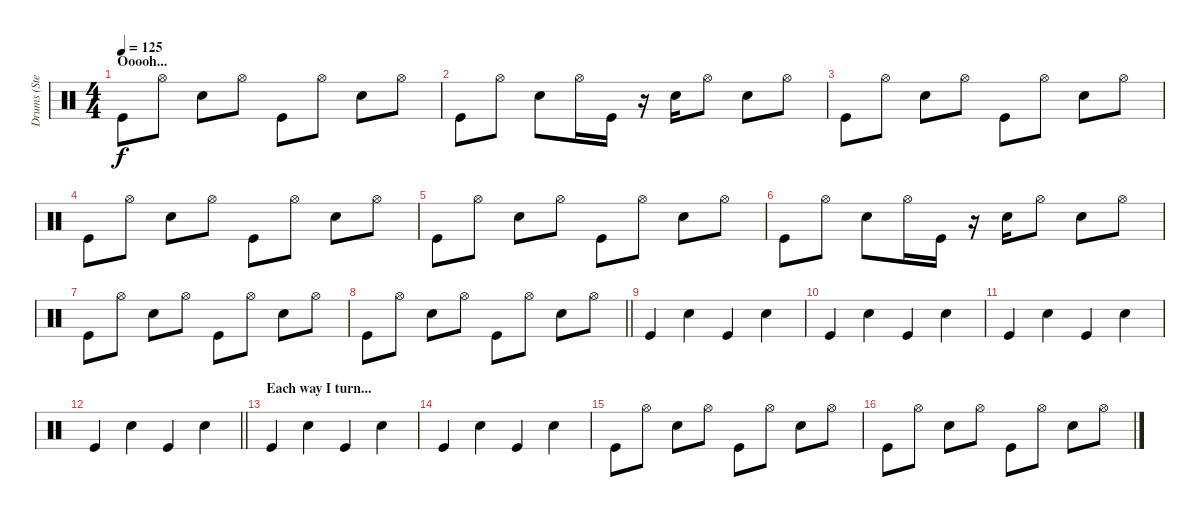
\track ("Drums (Stephen Morris)" "Drums (Ste") {instrument percussion}
\staff {score}
\articulation defaults
\ts (4 4)
\section ("" "Ooooh...")
\tempo 125
\clef neutral
\ks c "Kick (hit)".8{dy f volume 13} "Hi-Hat (open)".8 "Electric Snare (hit)".8 "Hi-Hat (open)".8 "Kick (hit)".8 "Hi-Hat (open)".8 "Electric Snare (hit)".8 "Hi-Hat (open)".8
|
"Kick (hit)".8 "Hi-Hat (open)".8 "Electric Snare (hit)".8 "Hi-Hat (open)".16 "Kick (hit)".16 r.16 "Electric Snare (hit)".16 "Hi-Hat (open)".8 "Electric Snare (hit)".8 "Hi-Hat (open)".8 |
"Kick (hit)".8 "Hi-Hat (open)".8 "Electric Snare (hit)".8 "Hi-Hat (open)".8 "Kick (hit)".8 "Hi-Hat (open)".8 "Electric Snare (hit)".8 "Hi-Hat (open)".8 |
"Kick (hit)".8 "Hi-Hat (open)".8 "Electric Snare (hit)".8 "Hi-Hat (open)".8 "Kick (hit)".8 "Hi-Hat (open)".8 "Electric Snare (hit)".8 "Hi-Hat (open)".8 |
"Kick (hit)".8 "Hi-Hat (open)".8 "Electric Snare (hit)".8 "Hi-Hat (open)".8 "Kick (hit)".8 "Hi-Hat (open)".8 "Electric Snare (hit)".8 "Hi-Hat (open)".8 |
"Kick (hit)".8 "Hi-Hat (open)".8 "Electric Snare (hit)".8 "Hi-Hat (open)".16 "Kick (hit)".16 r.16 "Electric Snare (hit)".16 "Hi-Hat (open)".8 "Electric Snare (hit)".8 "Hi-Hat (open)".8 |
"Kick (hit)".8 "Hi-Hat (open)".8 "Electric Snare (hit)".8 "Hi-Hat (open)".8 "Kick (hit)".8 "Hi-Hat (open)".8 "Electric Snare (hit)".8 "Hi-Hat (open)".8 |
\barLineRight lightlight "Kick (hit)".8 "Hi-Hat (open)".8 "Electric Snare (hit)".8 "Hi-Hat (open)".8 "Kick (hit)".8 "Hi-Hat (open)".8 "Electric Snare (hit)".8 "Hi-Hat (open)".8
|
"Kick (hit)".4 "Electric Snare (hit)".4 "Kick (hit)".4 "Electric Snare (hit)".4 |
"Kick (hit)".4 "Electric Snare (hit)".4 "Kick (hit)".4 "Electric Snare (hit)".4 |
"Kick (hit)".4 "Electric Snare (hit)".4 "Kick (hit)".4 "Electric Snare (hit)".4 |
\barLineRight lightlight "Kick (hit)".4 "Electric Snare (hit)".4 "Kick (hit)".4 "Electric Snare (hit)".4
|
\section ("" "Each way I turn...")
"Kick (hit)".4 "Electric Snare (hit)".4 "Kick (hit)".4 "Electric Snare (hit)".4 |
"Kick (hit)".4 "Electric Snare (hit)".4 "Kick (hit)".4 "Electric Snare (hit)".4 |
"Kick (hit)".8 "Hi-Hat (open)".8 "Electric Snare (hit)".8 "Hi-Hat (open)".8 "Kick (hit)".8 "Hi-Hat (open)".8 "Electric Snare (hit)".8 "Hi-Hat (open)".8 |
"Kick (hit)".8 "Hi-Hat (open)".8 "Electric Snare (hit)".8 "Hi-Hat (open)".8 "Kick (hit)".8 "Hi-Hat (open)".8 "Electric Snare (hit)".8 "Hi-Hat (open)".8
